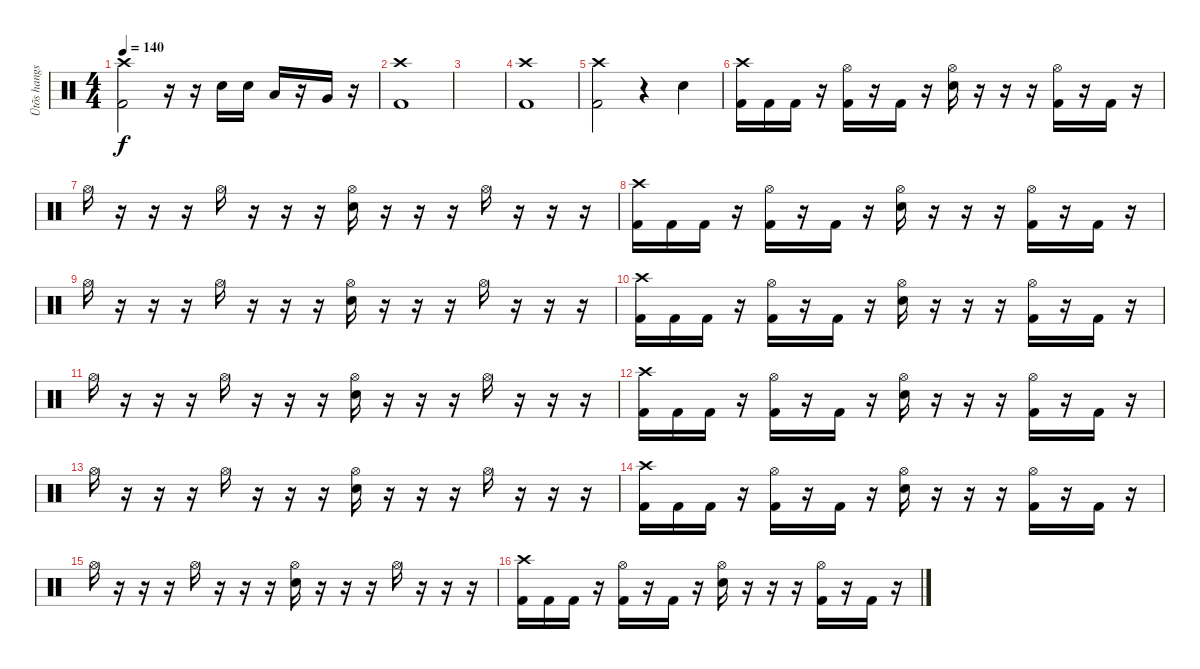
\track ("Ütõs hangszer" "Ütõs hangs") {instrument percussion}
\staff {score}
\articulation defaults
\ts (4 4)
\tempo 140
\clef neutral
\ks c
("Crash high (hit)" "Kick (hit) 2").2{dy f} r.16 r.16 "Snare (hit) 2".16 "Snare (hit) 2".16 "Low Tom (hit)".16 r.16 "Very Low Tom (hit)".16 r.16 |
("Crash high (hit)" "Kick (hit) 2").1 |
|
("Crash high (hit)" "Kick (hit) 2").1 |
("Crash high (hit)" "Kick (hit) 2").2 r.4 "Snare (hit) 2".4 |
("Crash high (hit)" "Kick (hit) 2").16 "Kick (hit) 2".16 "Kick (hit) 2".16 r.16 ("Hi-Hat (open)" "Kick (hit) 2").16 r.16 "Kick (hit) 2".16 r.16 ("Hi-Hat (open)" "Snare (hit) 2").16 r.16 r.16 r.16 ("Hi-Hat (open)" "Kick (hit) 2").16 r.16 "Kick (hit) 2".16 r.16 |
"Hi-Hat (open)".16 r.16 r.16 r.16 "Hi-Hat (open)".16 r.16 r.16 r.16 ("Hi-Hat (open)" "Snare (hit) 2").16 r.16 r.16 r.16 "Hi-Hat (open)".16 r.16 r.16 r.16 |
("Crash high (hit)" "Kick (hit) 2").16 "Kick (hit) 2".16 "Kick (hit) 2".16 r.16 ("Hi-Hat (open)" "Kick (hit) 2").16 r.16 "Kick (hit) 2".16 r.16 ("Hi-Hat (open)" "Snare (hit) 2").16 r.16 r.16 r.16 ("Hi-Hat (open)" "Kick (hit) 2").16 r.16 "Kick (hit) 2".16 r.16 |
"Hi-Hat (open)".16 r.16 r.16 r.16 "Hi-Hat (open)".16 r.16 r.16 r.16 ("Hi-Hat (open)" "Snare (hit) 2").16 r.16 r.16 r.16 "Hi-Hat (open)".16 r.16 r.16 r.16 |
("Crash high (hit)" "Kick (hit) 2").16 "Kick (hit) 2".16 "Kick (hit) 2".16 r.16 ("Hi-Hat (open)" "Kick (hit) 2").16 r.16 "Kick (hit) 2".16 r.16 ("Hi-Hat (open)" "Snare (hit) 2").16 r.16 r.16 r.16 ("Hi-Hat (open)" "Kick (hit) 2").16 r.16 "Kick (hit) 2".16 r.16 |
"Hi-Hat (open)".16 r.16 r.16 r.16 "Hi-Hat (open)".16 r.16 r.16 r.16 ("Hi-Hat (open)" "Snare (hit) 2").16 r.16 r.16 r.16 "Hi-Hat (open)".16 r.16 r.16 r.16 |
("Crash high (hit)" "Kick (hit) 2").16 "Kick (hit) 2".16 "Kick (hit) 2".16 r.16 ("Hi-Hat (open)" "Kick (hit) 2").16 r.16 "Kick (hit) 2".16 r.16 ("Hi-Hat (open)" "Snare (hit) 2").16 r.16 r.16 r.16 ("Hi-Hat (open)" "Kick (hit) 2").16 r.16 "Kick (hit) 2".16 r.16 |
"Hi-Hat (open)".16 r.16 r.16 r.16 "Hi-Hat (open)".16 r.16 r.16 r.16 ("Hi-Hat (open)" "Snare (hit) 2").16 r.16 r.16 r.16 "Hi-Hat (open)".16 r.16 r.16 r.16 |
("Crash high (hit)" "Kick (hit) 2").16 "Kick (hit) 2".16 "Kick (hit) 2".16 r.16 ("Hi-Hat (open)" "Kick (hit) 2").16 r.16 "Kick (hit) 2".16 r.16 ("Hi-Hat (open)" "Snare (hit) 2").16 r.16 r.16 r.16 ("Hi-Hat (open)" "Kick (hit) 2").16 r.16 "Kick (hit) 2".16 r.16 |
"Hi-Hat (open)".16 r.16 r.16 r.16 "Hi-Hat (open)".16 r.16 r.16 r.16 ("Hi-Hat (open)" "Snare (hit) 2").16 r.16 r.16 r.16 "Hi-Hat (open)".16 r.16 r.16 r.16 |
("Crash high (hit)" "Kick (hit) 2").16 "Kick (hit) 2".16 "Kick (hit) 2".16 r.16 ("Hi-Hat (open)" "Kick (hit) 2").16 r.16 "Kick (hit) 2".16 r.16 ("Hi-Hat (open)" "Snare (hit) 2").16 r.16 r.16 r.16 ("Hi-Hat (open)" "Kick (hit) 2").16 r.16 "Kick (hit) 2".16 r.16
